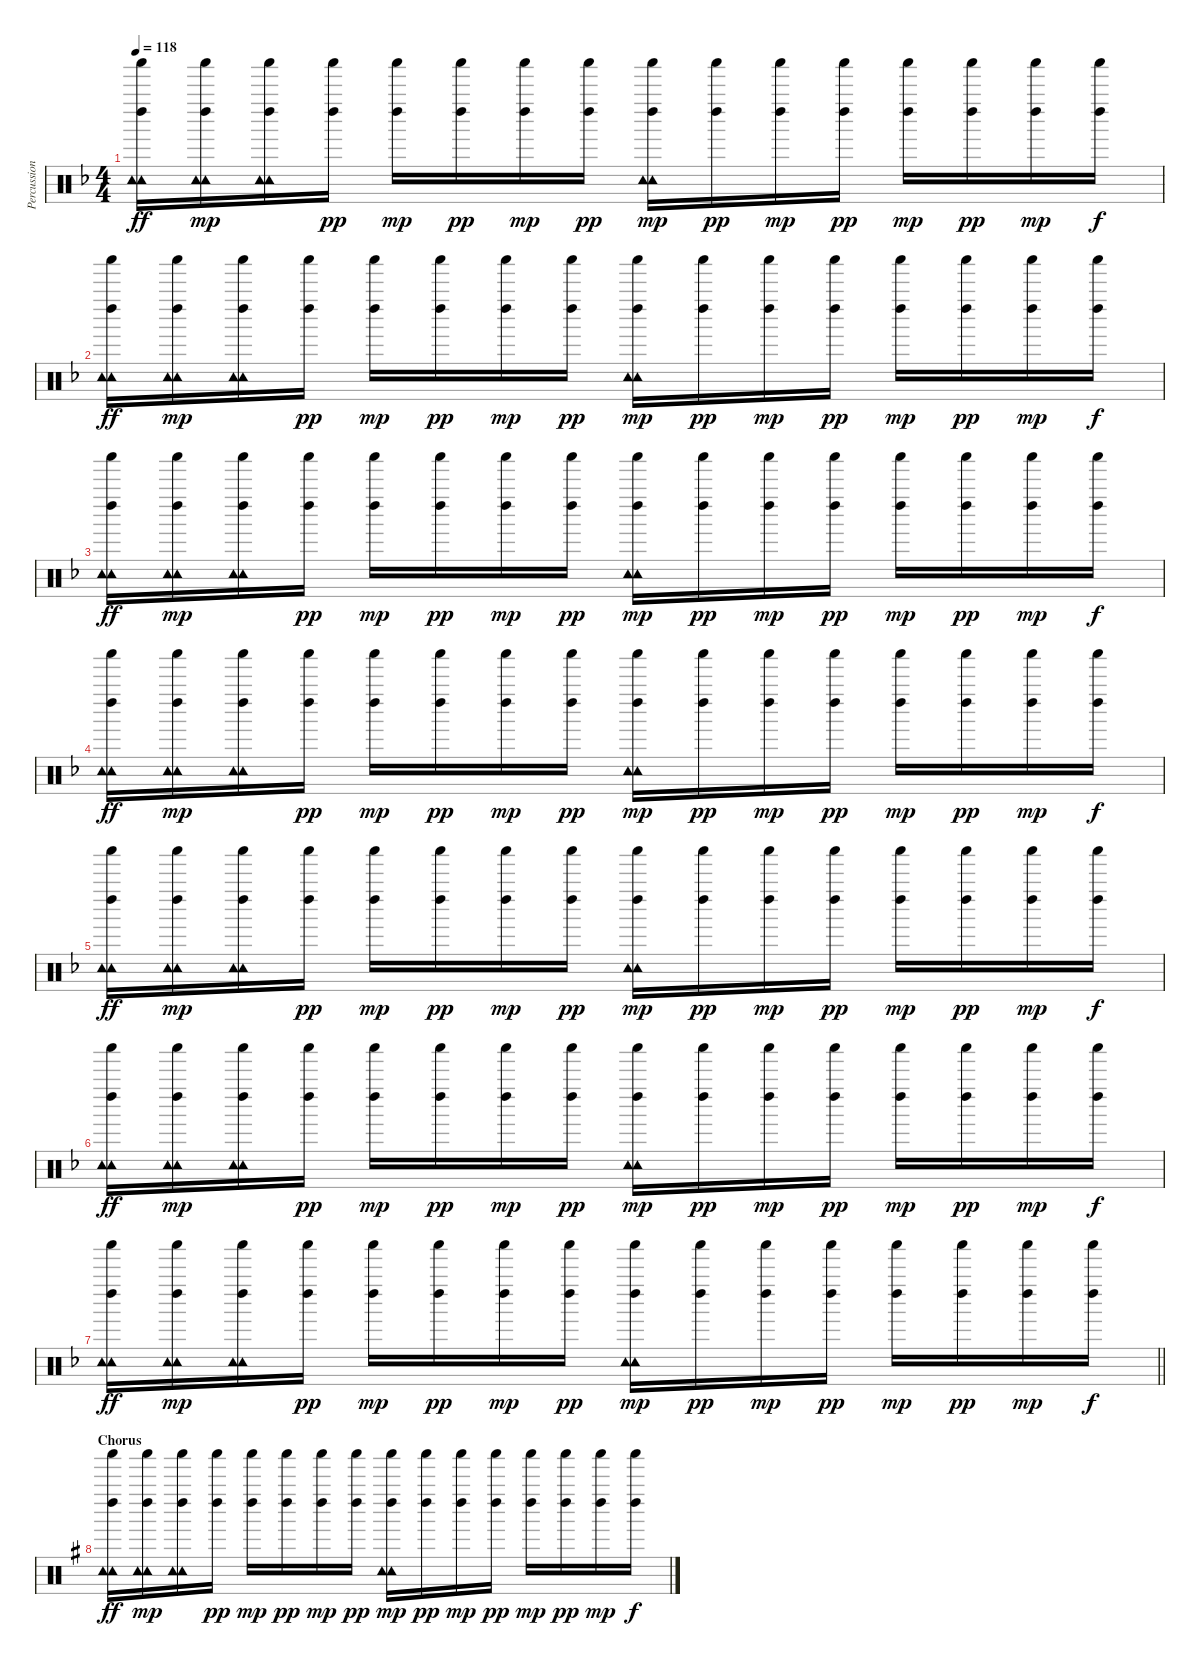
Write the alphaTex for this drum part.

\track ("Percussion" "Percussion") {instrument percussion}
\staff {score}
\articulation defaults
\ts (4 4)
\tempo 118
\clef neutral
\ks f
("Tambourine (hit)" "Tambourine (hit)" "Left Maraca (hit)" "Shaker (hit)").16{dy ff} ("Tambourine (hit)" "Tambourine (hit)" "Left Maraca (hit)" "Shaker (hit)").16{dy mp} ("Tambourine (hit)" "Tambourine (hit)" "Left Maraca (hit)" "Shaker (hit)").16 ("Left Maraca (hit)" "Shaker (hit)").16{dy pp} ("Left Maraca (hit)" "Shaker (hit)").16{dy mp} ("Left Maraca (hit)" "Shaker (hit)").16{dy pp} ("Left Maraca (hit)" "Shaker (hit)").16{dy mp} ("Left Maraca (hit)" "Shaker (hit)").16{dy pp} ("Tambourine (hit)" "Tambourine (hit)" "Left Maraca (hit)" "Shaker (hit)").16{dy mp} ("Left Maraca (hit)" "Shaker (hit)").16{dy pp} ("Left Maraca (hit)" "Shaker (hit)").16{dy mp} ("Left Maraca (hit)" "Shaker (hit)").16{dy pp} ("Left Maraca (hit)" "Shaker (hit)").16{dy mp} ("Left Maraca (hit)" "Shaker (hit)").16{dy pp} ("Left Maraca (hit)" "Shaker (hit)").16{dy mp} ("Left Maraca (hit)" "Shaker (hit)").16{dy f} |
("Tambourine (hit)" "Tambourine (hit)" "Left Maraca (hit)" "Shaker (hit)").16{dy ff} ("Tambourine (hit)" "Tambourine (hit)" "Left Maraca (hit)" "Shaker (hit)").16{dy mp} ("Tambourine (hit)" "Tambourine (hit)" "Left Maraca (hit)" "Shaker (hit)").16 ("Left Maraca (hit)" "Shaker (hit)").16{dy pp} ("Left Maraca (hit)" "Shaker (hit)").16{dy mp} ("Left Maraca (hit)" "Shaker (hit)").16{dy pp} ("Left Maraca (hit)" "Shaker (hit)").16{dy mp} ("Left Maraca (hit)" "Shaker (hit)").16{dy pp} ("Tambourine (hit)" "Tambourine (hit)" "Left Maraca (hit)" "Shaker (hit)").16{dy mp} ("Left Maraca (hit)" "Shaker (hit)").16{dy pp} ("Left Maraca (hit)" "Shaker (hit)").16{dy mp} ("Left Maraca (hit)" "Shaker (hit)").16{dy pp} ("Left Maraca (hit)" "Shaker (hit)").16{dy mp} ("Left Maraca (hit)" "Shaker (hit)").16{dy pp} ("Left Maraca (hit)" "Shaker (hit)").16{dy mp} ("Left Maraca (hit)" "Shaker (hit)").16{dy f} |
("Tambourine (hit)" "Tambourine (hit)" "Left Maraca (hit)" "Shaker (hit)").16{dy ff} ("Tambourine (hit)" "Tambourine (hit)" "Left Maraca (hit)" "Shaker (hit)").16{dy mp} ("Tambourine (hit)" "Tambourine (hit)" "Left Maraca (hit)" "Shaker (hit)").16 ("Left Maraca (hit)" "Shaker (hit)").16{dy pp} ("Left Maraca (hit)" "Shaker (hit)").16{dy mp} ("Left Maraca (hit)" "Shaker (hit)").16{dy pp} ("Left Maraca (hit)" "Shaker (hit)").16{dy mp} ("Left Maraca (hit)" "Shaker (hit)").16{dy pp} ("Tambourine (hit)" "Tambourine (hit)" "Left Maraca (hit)" "Shaker (hit)").16{dy mp} ("Left Maraca (hit)" "Shaker (hit)").16{dy pp} ("Left Maraca (hit)" "Shaker (hit)").16{dy mp} ("Left Maraca (hit)" "Shaker (hit)").16{dy pp} ("Left Maraca (hit)" "Shaker (hit)").16{dy mp} ("Left Maraca (hit)" "Shaker (hit)").16{dy pp} ("Left Maraca (hit)" "Shaker (hit)").16{dy mp} ("Left Maraca (hit)" "Shaker (hit)").16{dy f} |
("Tambourine (hit)" "Tambourine (hit)" "Left Maraca (hit)" "Shaker (hit)").16{dy ff} ("Tambourine (hit)" "Tambourine (hit)" "Left Maraca (hit)" "Shaker (hit)").16{dy mp} ("Tambourine (hit)" "Tambourine (hit)" "Left Maraca (hit)" "Shaker (hit)").16 ("Left Maraca (hit)" "Shaker (hit)").16{dy pp} ("Left Maraca (hit)" "Shaker (hit)").16{dy mp} ("Left Maraca (hit)" "Shaker (hit)").16{dy pp} ("Left Maraca (hit)" "Shaker (hit)").16{dy mp} ("Left Maraca (hit)" "Shaker (hit)").16{dy pp} ("Tambourine (hit)" "Tambourine (hit)" "Left Maraca (hit)" "Shaker (hit)").16{dy mp} ("Left Maraca (hit)" "Shaker (hit)").16{dy pp} ("Left Maraca (hit)" "Shaker (hit)").16{dy mp} ("Left Maraca (hit)" "Shaker (hit)").16{dy pp} ("Left Maraca (hit)" "Shaker (hit)").16{dy mp} ("Left Maraca (hit)" "Shaker (hit)").16{dy pp} ("Left Maraca (hit)" "Shaker (hit)").16{dy mp} ("Left Maraca (hit)" "Shaker (hit)").16{dy f} |
("Tambourine (hit)" "Tambourine (hit)" "Left Maraca (hit)" "Shaker (hit)").16{dy ff} ("Tambourine (hit)" "Tambourine (hit)" "Left Maraca (hit)" "Shaker (hit)").16{dy mp} ("Tambourine (hit)" "Tambourine (hit)" "Left Maraca (hit)" "Shaker (hit)").16 ("Left Maraca (hit)" "Shaker (hit)").16{dy pp} ("Left Maraca (hit)" "Shaker (hit)").16{dy mp} ("Left Maraca (hit)" "Shaker (hit)").16{dy pp} ("Left Maraca (hit)" "Shaker (hit)").16{dy mp} ("Left Maraca (hit)" "Shaker (hit)").16{dy pp} ("Tambourine (hit)" "Tambourine (hit)" "Left Maraca (hit)" "Shaker (hit)").16{dy mp} ("Left Maraca (hit)" "Shaker (hit)").16{dy pp} ("Left Maraca (hit)" "Shaker (hit)").16{dy mp} ("Left Maraca (hit)" "Shaker (hit)").16{dy pp} ("Left Maraca (hit)" "Shaker (hit)").16{dy mp} ("Left Maraca (hit)" "Shaker (hit)").16{dy pp} ("Left Maraca (hit)" "Shaker (hit)").16{dy mp} ("Left Maraca (hit)" "Shaker (hit)").16{dy f} |
("Tambourine (hit)" "Tambourine (hit)" "Left Maraca (hit)" "Shaker (hit)").16{dy ff} ("Tambourine (hit)" "Tambourine (hit)" "Left Maraca (hit)" "Shaker (hit)").16{dy mp} ("Tambourine (hit)" "Tambourine (hit)" "Left Maraca (hit)" "Shaker (hit)").16 ("Left Maraca (hit)" "Shaker (hit)").16{dy pp} ("Left Maraca (hit)" "Shaker (hit)").16{dy mp} ("Left Maraca (hit)" "Shaker (hit)").16{dy pp} ("Left Maraca (hit)" "Shaker (hit)").16{dy mp} ("Left Maraca (hit)" "Shaker (hit)").16{dy pp} ("Tambourine (hit)" "Tambourine (hit)" "Left Maraca (hit)" "Shaker (hit)").16{dy mp} ("Left Maraca (hit)" "Shaker (hit)").16{dy pp} ("Left Maraca (hit)" "Shaker (hit)").16{dy mp} ("Left Maraca (hit)" "Shaker (hit)").16{dy pp} ("Left Maraca (hit)" "Shaker (hit)").16{dy mp} ("Left Maraca (hit)" "Shaker (hit)").16{dy pp} ("Left Maraca (hit)" "Shaker (hit)").16{dy mp} ("Left Maraca (hit)" "Shaker (hit)").16{dy f} |
\barLineRight lightlight
("Tambourine (hit)" "Tambourine (hit)" "Left Maraca (hit)" "Shaker (hit)").16{dy ff} ("Tambourine (hit)" "Tambourine (hit)" "Left Maraca (hit)" "Shaker (hit)").16{dy mp} ("Tambourine (hit)" "Tambourine (hit)" "Left Maraca (hit)" "Shaker (hit)").16 ("Left Maraca (hit)" "Shaker (hit)").16{dy pp} ("Left Maraca (hit)" "Shaker (hit)").16{dy mp} ("Left Maraca (hit)" "Shaker (hit)").16{dy pp} ("Left Maraca (hit)" "Shaker (hit)").16{dy mp} ("Left Maraca (hit)" "Shaker (hit)").16{dy pp} ("Tambourine (hit)" "Tambourine (hit)" "Left Maraca (hit)" "Shaker (hit)").16{dy mp} ("Left Maraca (hit)" "Shaker (hit)").16{dy pp} ("Left Maraca (hit)" "Shaker (hit)").16{dy mp} ("Left Maraca (hit)" "Shaker (hit)").16{dy pp} ("Left Maraca (hit)" "Shaker (hit)").16{dy mp} ("Left Maraca (hit)" "Shaker (hit)").16{dy pp} ("Left Maraca (hit)" "Shaker (hit)").16{dy mp} ("Left Maraca (hit)" "Shaker (hit)").16{dy f} |
\section ("" "Chorus")
\ks g
("Tambourine (hit)" "Tambourine (hit)" "Left Maraca (hit)" "Shaker (hit)").16{dy ff} ("Tambourine (hit)" "Tambourine (hit)" "Left Maraca (hit)" "Shaker (hit)").16{dy mp} ("Tambourine (hit)" "Tambourine (hit)" "Left Maraca (hit)" "Shaker (hit)").16 ("Left Maraca (hit)" "Shaker (hit)").16{dy pp} ("Left Maraca (hit)" "Shaker (hit)").16{dy mp} ("Left Maraca (hit)" "Shaker (hit)").16{dy pp} ("Left Maraca (hit)" "Shaker (hit)").16{dy mp} ("Left Maraca (hit)" "Shaker (hit)").16{dy pp} ("Tambourine (hit)" "Tambourine (hit)" "Left Maraca (hit)" "Shaker (hit)").16{dy mp} ("Left Maraca (hit)" "Shaker (hit)").16{dy pp} ("Left Maraca (hit)" "Shaker (hit)").16{dy mp} ("Left Maraca (hit)" "Shaker (hit)").16{dy pp} ("Left Maraca (hit)" "Shaker (hit)").16{dy mp} ("Left Maraca (hit)" "Shaker (hit)").16{dy pp} ("Left Maraca (hit)" "Shaker (hit)").16{dy mp} ("Left Maraca (hit)" "Shaker (hit)").16{dy f}
